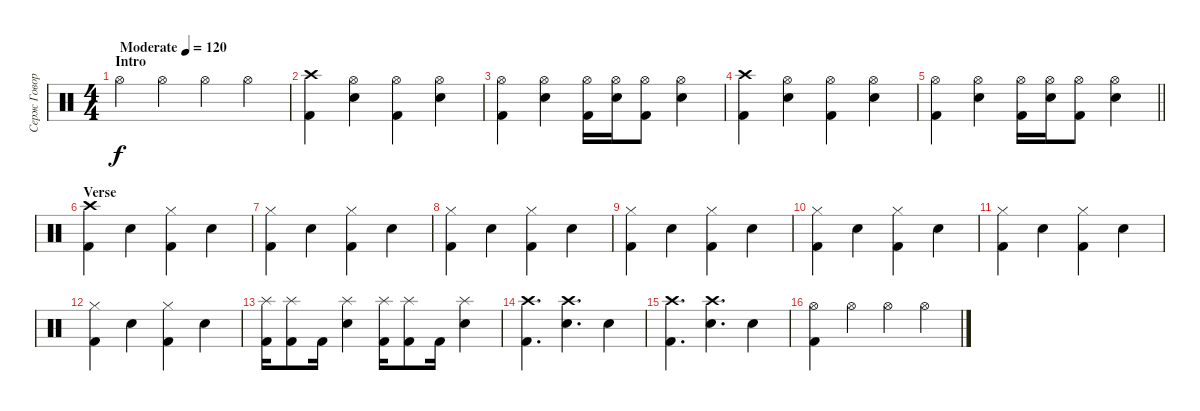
\track ("Серж Говорун" "Серж Говор") {instrument percussion}
\staff {score}
\articulation defaults
\ts (4 4)
\section ("" "Intro")
\tempo (120 "Moderate")
\clef neutral
\ks c "Hi-Hat (open)".4{dy f} "Hi-Hat (open)".4 "Hi-Hat (open)".4 "Hi-Hat (open)".4
|
("Crash high (hit)" "Kick (hit) 2").4 ("Hi-Hat (open)" "Electric Snare (hit)").4 ("Hi-Hat (open)" "Kick (hit) 2").4 ("Hi-Hat (open)" "Electric Snare (hit)").4 |
("Hi-Hat (open)" "Kick (hit) 2").4 ("Hi-Hat (open)" "Electric Snare (hit)").4 ("Kick (hit) 2" "Hi-Hat (open)").16 ("Hi-Hat (open)" "Electric Snare (hit)").16 ("Kick (hit) 2" "Hi-Hat (open)").8 ("Electric Snare (hit)" "Hi-Hat (open)").4 |
("Crash high (hit)" "Kick (hit) 2").4 ("Hi-Hat (open)" "Electric Snare (hit)").4 ("Hi-Hat (open)" "Kick (hit) 2").4 ("Hi-Hat (open)" "Electric Snare (hit)").4 |
\barLineRight lightlight
("Hi-Hat (open)" "Kick (hit) 2").4 ("Hi-Hat (open)" "Electric Snare (hit)").4 ("Kick (hit) 2" "Hi-Hat (open)").16 ("Hi-Hat (open)" "Electric Snare (hit)").16 ("Kick (hit) 2" "Hi-Hat (open)").8 ("Electric Snare (hit)" "Hi-Hat (open)").4 |
\section ("" "Verse")
("Crash high (hit)" "Kick (hit) 2").4 "Electric Snare (hit)".4 ("Hi-Hat (closed)" "Kick (hit) 2").4 "Electric Snare (hit)".4 |
("Hi-Hat (closed)" "Kick (hit) 2").4 "Electric Snare (hit)".4 ("Hi-Hat (closed)" "Kick (hit) 2").4 "Electric Snare (hit)".4 |
("Hi-Hat (closed)" "Kick (hit) 2").4 "Electric Snare (hit)".4 ("Hi-Hat (closed)" "Kick (hit) 2").4 "Electric Snare (hit)".4 |
("Hi-Hat (closed)" "Kick (hit) 2").4 "Electric Snare (hit)".4 ("Hi-Hat (closed)" "Kick (hit) 2").4 "Electric Snare (hit)".4 |
("Hi-Hat (closed)" "Kick (hit) 2").4 "Electric Snare (hit)".4 ("Hi-Hat (closed)" "Kick (hit) 2").4 "Electric Snare (hit)".4 |
("Hi-Hat (closed)" "Kick (hit) 2").4 "Electric Snare (hit)".4 ("Hi-Hat (closed)" "Kick (hit) 2").4 "Electric Snare (hit)".4 |
("Hi-Hat (closed)" "Kick (hit) 2").4 "Electric Snare (hit)".4 ("Hi-Hat (closed)" "Kick (hit) 2").4 "Electric Snare (hit)".4 |
("Splash (hit)" "Kick (hit) 2").16 ("Splash (hit)" "Kick (hit) 2").8 "Kick (hit) 2".16 ("Splash (hit)" "Electric Snare (hit)").4 ("Splash (hit)" "Kick (hit) 2").16 ("Splash (hit)" "Kick (hit) 2").8 "Kick (hit) 2".16 ("Splash (hit)" "Electric Snare (hit)").4 |
("Crash high (hit)" "Kick (hit) 2").4{d} ("Electric Snare (hit)" "Crash high (hit)").4{d} "Electric Snare (hit)".4 |
("Crash high (hit)" "Kick (hit) 2").4{d} ("Electric Snare (hit)" "Crash high (hit)").4{d} "Electric Snare (hit)".4 |
("Hi-Hat (open)" "Kick (hit) 2").4 "Hi-Hat (open)".4 "Hi-Hat (open)".4 "Hi-Hat (open)".4
